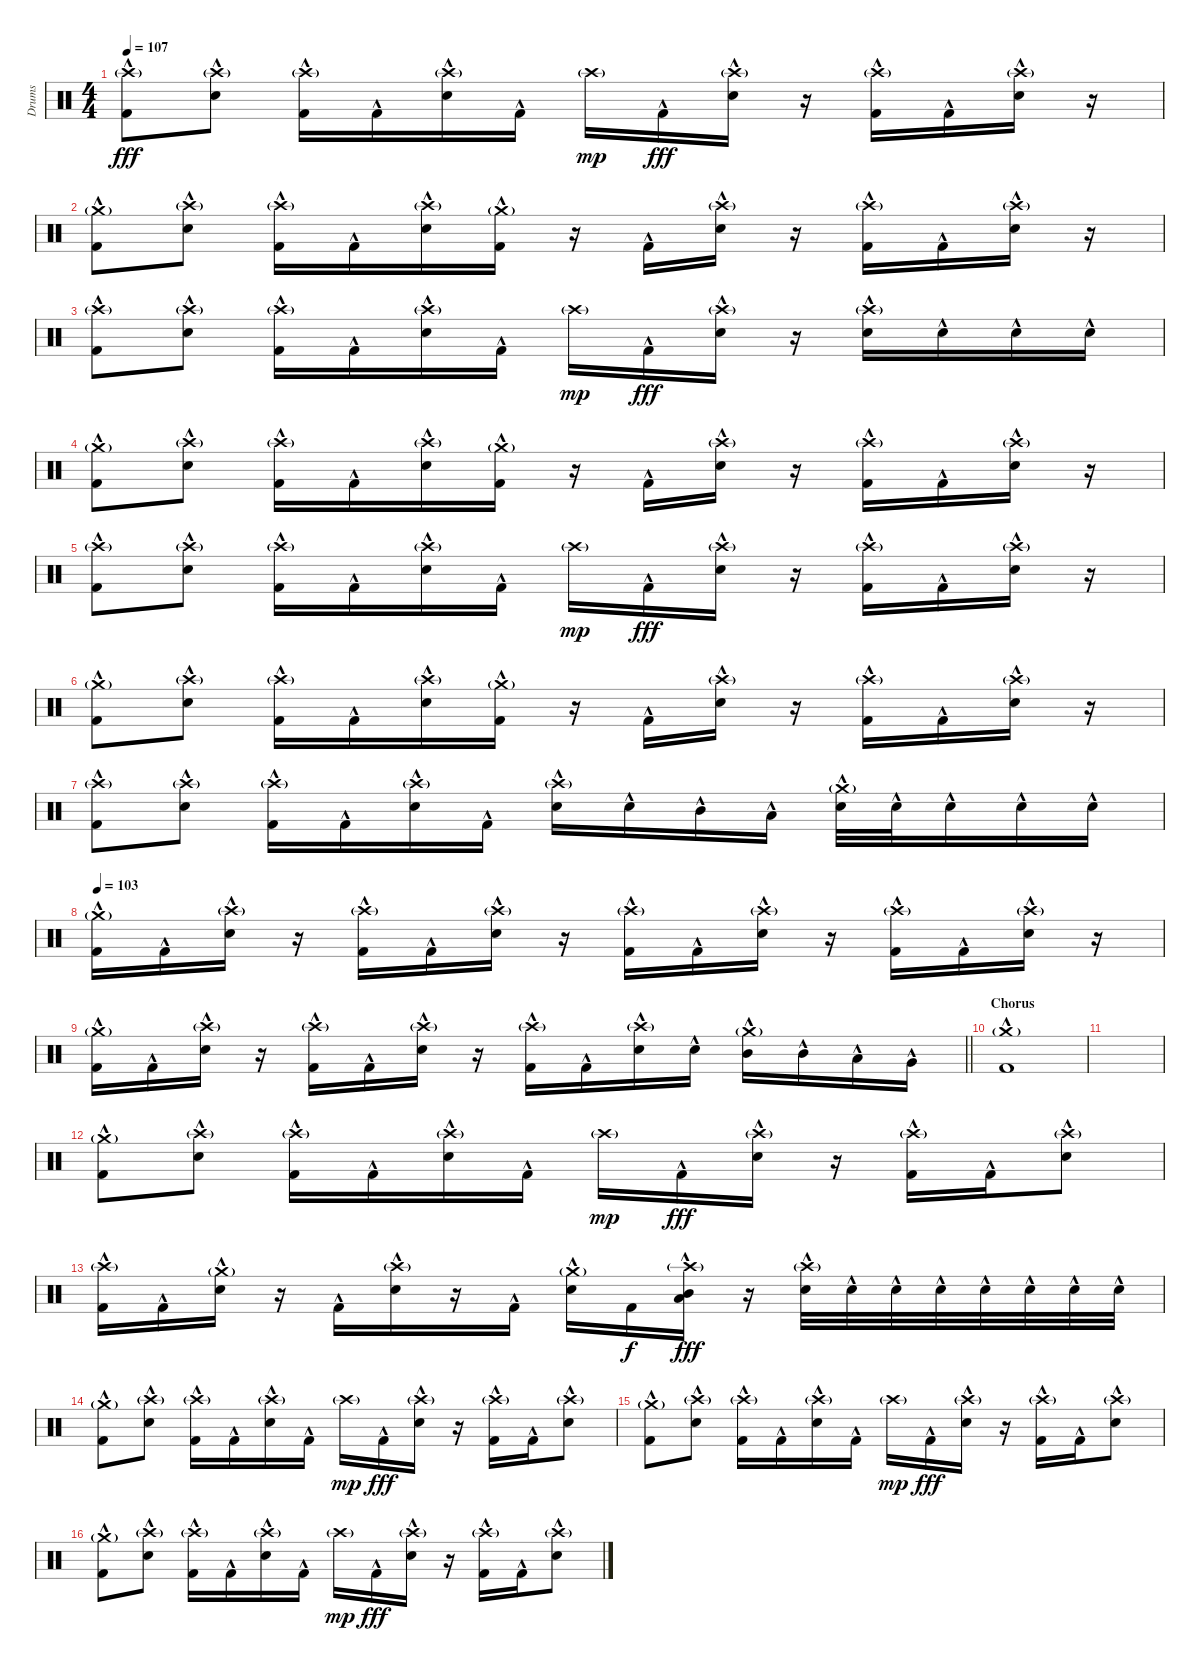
\track ("Drums" "Drums") {instrument percussion}
\staff {score}
\articulation defaults
\ts (4 4)
\tempo 107
\clef neutral
\ks c
("Crash high (hit)"{g} "Kick (hit) 2"{hac}).8{dy fff} ("Crash high (hit)"{g} "Snare (hit) 2"{hac}).8 ("Crash high (hit)"{g} "Kick (hit) 2"{hac}).16 "Kick (hit) 2"{hac}.16 ("Crash high (hit)"{g} "Snare (hit) 2"{hac}).16 "Kick (hit) 2"{hac}.16 "Crash high (hit)"{g}.16{dy mp} "Kick (hit) 2"{hac}.16{dy fff} ("Crash high (hit)"{g} "Snare (hit) 2"{hac}).16 r.16 ("Crash high (hit)"{g} "Kick (hit) 2"{hac}).16 "Kick (hit) 2"{hac}.16 ("Crash high (hit)"{g} "Snare (hit) 2"{hac}).16 r.16 |
("Crash medium (hit)"{g} "Kick (hit) 2"{hac}).8 ("Crash high (hit)"{g} "Snare (hit) 2"{hac}).8 ("Crash high (hit)"{g} "Kick (hit) 2"{hac}).16 "Kick (hit) 2"{hac}.16 ("Crash high (hit)"{g} "Snare (hit) 2"{hac}).16 ("Crash medium (hit)"{g} "Kick (hit) 2"{hac}).16 r.16 "Kick (hit) 2"{hac}.16 ("Crash high (hit)"{g} "Snare (hit) 2"{hac}).16 r.16 ("Crash high (hit)"{g} "Kick (hit) 2"{hac}).16 "Kick (hit) 2"{hac}.16 ("Crash high (hit)"{g} "Snare (hit) 2"{hac}).16 r.16 |
("Crash high (hit)"{g} "Kick (hit) 2"{hac}).8 ("Crash high (hit)"{g} "Snare (hit) 2"{hac}).8 ("Crash high (hit)"{g} "Kick (hit) 2"{hac}).16 "Kick (hit) 2"{hac}.16 ("Crash high (hit)"{g} "Snare (hit) 2"{hac}).16 "Kick (hit) 2"{hac}.16 "Crash high (hit)"{g}.16{dy mp} "Kick (hit) 2"{hac}.16{dy fff} ("Crash high (hit)"{g} "Snare (hit) 2"{hac}).16 r.16 ("Crash high (hit)"{g} "Snare (hit) 2"{hac}).16 "Snare (hit) 2"{hac}.16 "Snare (hit) 2"{hac}.16 "Snare (hit) 2"{hac}.16 |
("Crash medium (hit)"{g} "Kick (hit) 2"{hac}).8 ("Crash high (hit)"{g} "Snare (hit) 2"{hac}).8 ("Crash high (hit)"{g} "Kick (hit) 2"{hac}).16 "Kick (hit) 2"{hac}.16 ("Crash high (hit)"{g} "Snare (hit) 2"{hac}).16 ("Crash medium (hit)"{g} "Kick (hit) 2"{hac}).16 r.16 "Kick (hit) 2"{hac}.16 ("Crash high (hit)"{g} "Snare (hit) 2"{hac}).16 r.16 ("Crash high (hit)"{g} "Kick (hit) 2"{hac}).16 "Kick (hit) 2"{hac}.16 ("Crash high (hit)"{g} "Snare (hit) 2"{hac}).16 r.16 |
("Crash high (hit)"{g} "Kick (hit) 2"{hac}).8 ("Crash high (hit)"{g} "Snare (hit) 2"{hac}).8 ("Crash high (hit)"{g} "Kick (hit) 2"{hac}).16 "Kick (hit) 2"{hac}.16 ("Crash high (hit)"{g} "Snare (hit) 2"{hac}).16 "Kick (hit) 2"{hac}.16 "Crash high (hit)"{g}.16{dy mp} "Kick (hit) 2"{hac}.16{dy fff} ("Crash high (hit)"{g} "Snare (hit) 2"{hac}).16 r.16 ("Crash high (hit)"{g} "Kick (hit) 2"{hac}).16 "Kick (hit) 2"{hac}.16 ("Crash high (hit)"{g} "Snare (hit) 2"{hac}).16 r.16 |
("Crash medium (hit)"{g} "Kick (hit) 2"{hac}).8 ("Crash high (hit)"{g} "Snare (hit) 2"{hac}).8 ("Crash high (hit)"{g} "Kick (hit) 2"{hac}).16 "Kick (hit) 2"{hac}.16 ("Crash high (hit)"{g} "Snare (hit) 2"{hac}).16 ("Crash medium (hit)"{g} "Kick (hit) 2"{hac}).16 r.16 "Kick (hit) 2"{hac}.16 ("Crash high (hit)"{g} "Snare (hit) 2"{hac}).16 r.16 ("Crash high (hit)"{g} "Kick (hit) 2"{hac}).16 "Kick (hit) 2"{hac}.16 ("Crash high (hit)"{g} "Snare (hit) 2"{hac}).16 r.16 |
("Crash high (hit)"{g} "Kick (hit) 2"{hac}).8 ("Crash high (hit)"{g} "Snare (hit) 2"{hac}).8 ("Crash high (hit)"{g} "Kick (hit) 2"{hac}).16 "Kick (hit) 2"{hac}.16 ("Crash high (hit)"{g} "Snare (hit) 2"{hac}).16 "Kick (hit) 2"{hac}.16 ("Crash high (hit)"{g} "Snare (hit) 2"{hac}).16 "Snare (hit) 2"{hac}.16 "Mid Tom (hit)"{hac}.16 "Low Tom (hit)"{hac}.16 ("Crash medium (hit)"{g} "Snare (hit) 2"{hac}).32 "Snare (hit) 2"{hac}.32 "Snare (hit) 2"{hac}.16 "Snare (hit) 2"{hac}.16 "Snare (hit) 2"{hac}.16 |
\tempo 103
("Crash medium (hit)"{g} "Kick (hit) 2"{hac}).16 "Kick (hit) 2"{hac}.16 ("Crash high (hit)"{g} "Snare (hit) 2"{hac}).16 r.16 ("Crash high (hit)"{g} "Kick (hit) 2"{hac}).16 "Kick (hit) 2"{hac}.16 ("Crash high (hit)"{g} "Snare (hit) 2"{hac}).16 r.16 ("Crash high (hit)"{g} "Kick (hit) 2"{hac}).16 "Kick (hit) 2"{hac}.16 ("Crash high (hit)"{g} "Snare (hit) 2"{hac}).16 r.16 ("Crash high (hit)"{g} "Kick (hit) 2"{hac}).16 "Kick (hit) 2"{hac}.16 ("Crash high (hit)"{g} "Snare (hit) 2"{hac}).16 r.16 |
\barLineRight lightlight
("Crash medium (hit)"{g} "Kick (hit) 2"{hac}).16 "Kick (hit) 2"{hac}.16 ("Crash high (hit)"{g} "Snare (hit) 2"{hac}).16 r.16 ("Crash high (hit)"{g} "Kick (hit) 2"{hac}).16 "Kick (hit) 2"{hac}.16 ("Crash high (hit)"{g} "Snare (hit) 2"{hac}).16 r.16 ("Crash high (hit)"{g} "Kick (hit) 2"{hac}).16 "Kick (hit) 2"{hac}.16 ("Crash high (hit)"{g} "Snare (hit) 2"{hac}).16 "Snare (hit) 2"{hac}.16 ("Crash medium (hit)"{g} "Mid Tom (hit)"{hac}).16 "Mid Tom (hit)"{hac}.16 "Low Tom (hit)"{hac}.16 "Very Low Tom (hit)"{hac}.16 |
\section ("" "Chorus")
("Crash medium (hit)"{g} "Kick (hit) 2"{hac}).1 |
|
("Crash medium (hit)"{g} "Kick (hit) 2"{hac}).8 ("Crash high (hit)"{g} "Snare (hit) 2"{hac}).8 ("Crash high (hit)"{g} "Kick (hit) 2"{hac}).16 "Kick (hit) 2"{hac}.16 ("Crash high (hit)"{g} "Snare (hit) 2"{hac}).16 "Kick (hit) 2"{hac}.16 "Crash high (hit)"{g}.16{dy mp} "Kick (hit) 2"{hac}.16{dy fff} ("Crash high (hit)"{g} "Snare (hit) 2"{hac}).16 r.16 ("Crash high (hit)"{g} "Kick (hit) 2"{hac}).16 "Kick (hit) 2"{hac}.16 ("Crash high (hit)"{g} "Snare (hit) 2"{hac}).8 |
("Crash high (hit)"{g} "Kick (hit) 2"{hac}).16 "Kick (hit) 2"{hac}.16 ("Crash medium (hit)"{g} "Snare (hit) 2"{hac}).16 r.16 "Kick (hit) 2"{hac}.16 ("Crash high (hit)"{g} "Snare (hit) 2"{hac}).16 r.16 "Kick (hit) 2"{hac}.16 ("Crash medium (hit)"{g} "Snare (hit) 2"{hac}).16 "Kick (hit) 2".16{dy f} ("Crash high (hit)"{g} "Mid Tom (hit)"{hac} "Low Tom (hit)"{hac}).16{dy fff} r.16 ("Crash high (hit)"{g} "Snare (hit) 2"{hac}).32 "Snare (hit) 2"{hac}.32 "Snare (hit) 2"{hac}.32 "Snare (hit) 2"{hac}.32 "Snare (hit) 2"{hac}.32 "Snare (hit) 2"{hac}.32 "Snare (hit) 2"{hac}.32 "Snare (hit) 2"{hac}.32 |
("Crash medium (hit)"{g} "Kick (hit) 2"{hac}).8 ("Crash high (hit)"{g} "Snare (hit) 2"{hac}).8 ("Crash high (hit)"{g} "Kick (hit) 2"{hac}).16 "Kick (hit) 2"{hac}.16 ("Crash high (hit)"{g} "Snare (hit) 2"{hac}).16 "Kick (hit) 2"{hac}.16 "Crash high (hit)"{g}.16{dy mp} "Kick (hit) 2"{hac}.16{dy fff} ("Crash high (hit)"{g} "Snare (hit) 2"{hac}).16 r.16 ("Crash high (hit)"{g} "Kick (hit) 2"{hac}).16 "Kick (hit) 2"{hac}.16 ("Crash high (hit)"{g} "Snare (hit) 2"{hac}).8 |
("Crash medium (hit)"{g} "Kick (hit) 2"{hac}).8 ("Crash high (hit)"{g} "Snare (hit) 2"{hac}).8 ("Crash high (hit)"{g} "Kick (hit) 2"{hac}).16 "Kick (hit) 2"{hac}.16 ("Crash high (hit)"{g} "Snare (hit) 2"{hac}).16 "Kick (hit) 2"{hac}.16 "Crash high (hit)"{g}.16{dy mp} "Kick (hit) 2"{hac}.16{dy fff} ("Crash high (hit)"{g} "Snare (hit) 2"{hac}).16 r.16 ("Crash high (hit)"{g} "Kick (hit) 2"{hac}).16 "Kick (hit) 2"{hac}.16 ("Crash high (hit)"{g} "Snare (hit) 2"{hac}).8 |
("Crash medium (hit)"{g} "Kick (hit) 2"{hac}).8 ("Crash high (hit)"{g} "Snare (hit) 2"{hac}).8 ("Crash high (hit)"{g} "Kick (hit) 2"{hac}).16 "Kick (hit) 2"{hac}.16 ("Crash high (hit)"{g} "Snare (hit) 2"{hac}).16 "Kick (hit) 2"{hac}.16 "Crash high (hit)"{g}.16{dy mp} "Kick (hit) 2"{hac}.16{dy fff} ("Crash high (hit)"{g} "Snare (hit) 2"{hac}).16 r.16 ("Crash high (hit)"{g} "Kick (hit) 2"{hac}).16 "Kick (hit) 2"{hac}.16 ("Crash high (hit)"{g} "Snare (hit) 2"{hac}).8
